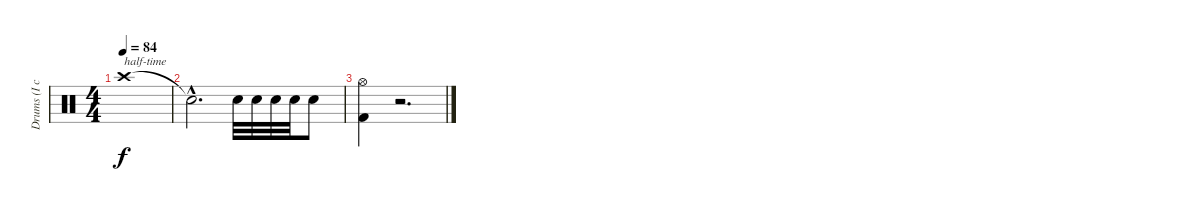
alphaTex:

\track ("Drums (I can't tab drums too well...)" "Drums (I c") {instrument percussion}
\staff {score}
\articulation defaults
\ts (4 4)
\tempo 84
\clef neutral
\ks c "Crash high (hit)".1{txt "half-time" dy f}
|
"Snare (hit)"{hac t}.2{d} "Snare (hit) 2".32 "Snare (hit) 2".32 "Snare (hit) 2".32 "Snare (hit) 2".32 "Snare (hit) 2".8 |
("Hi-Hat (open)" "Kick (hit) 2").4 r.2{d}
